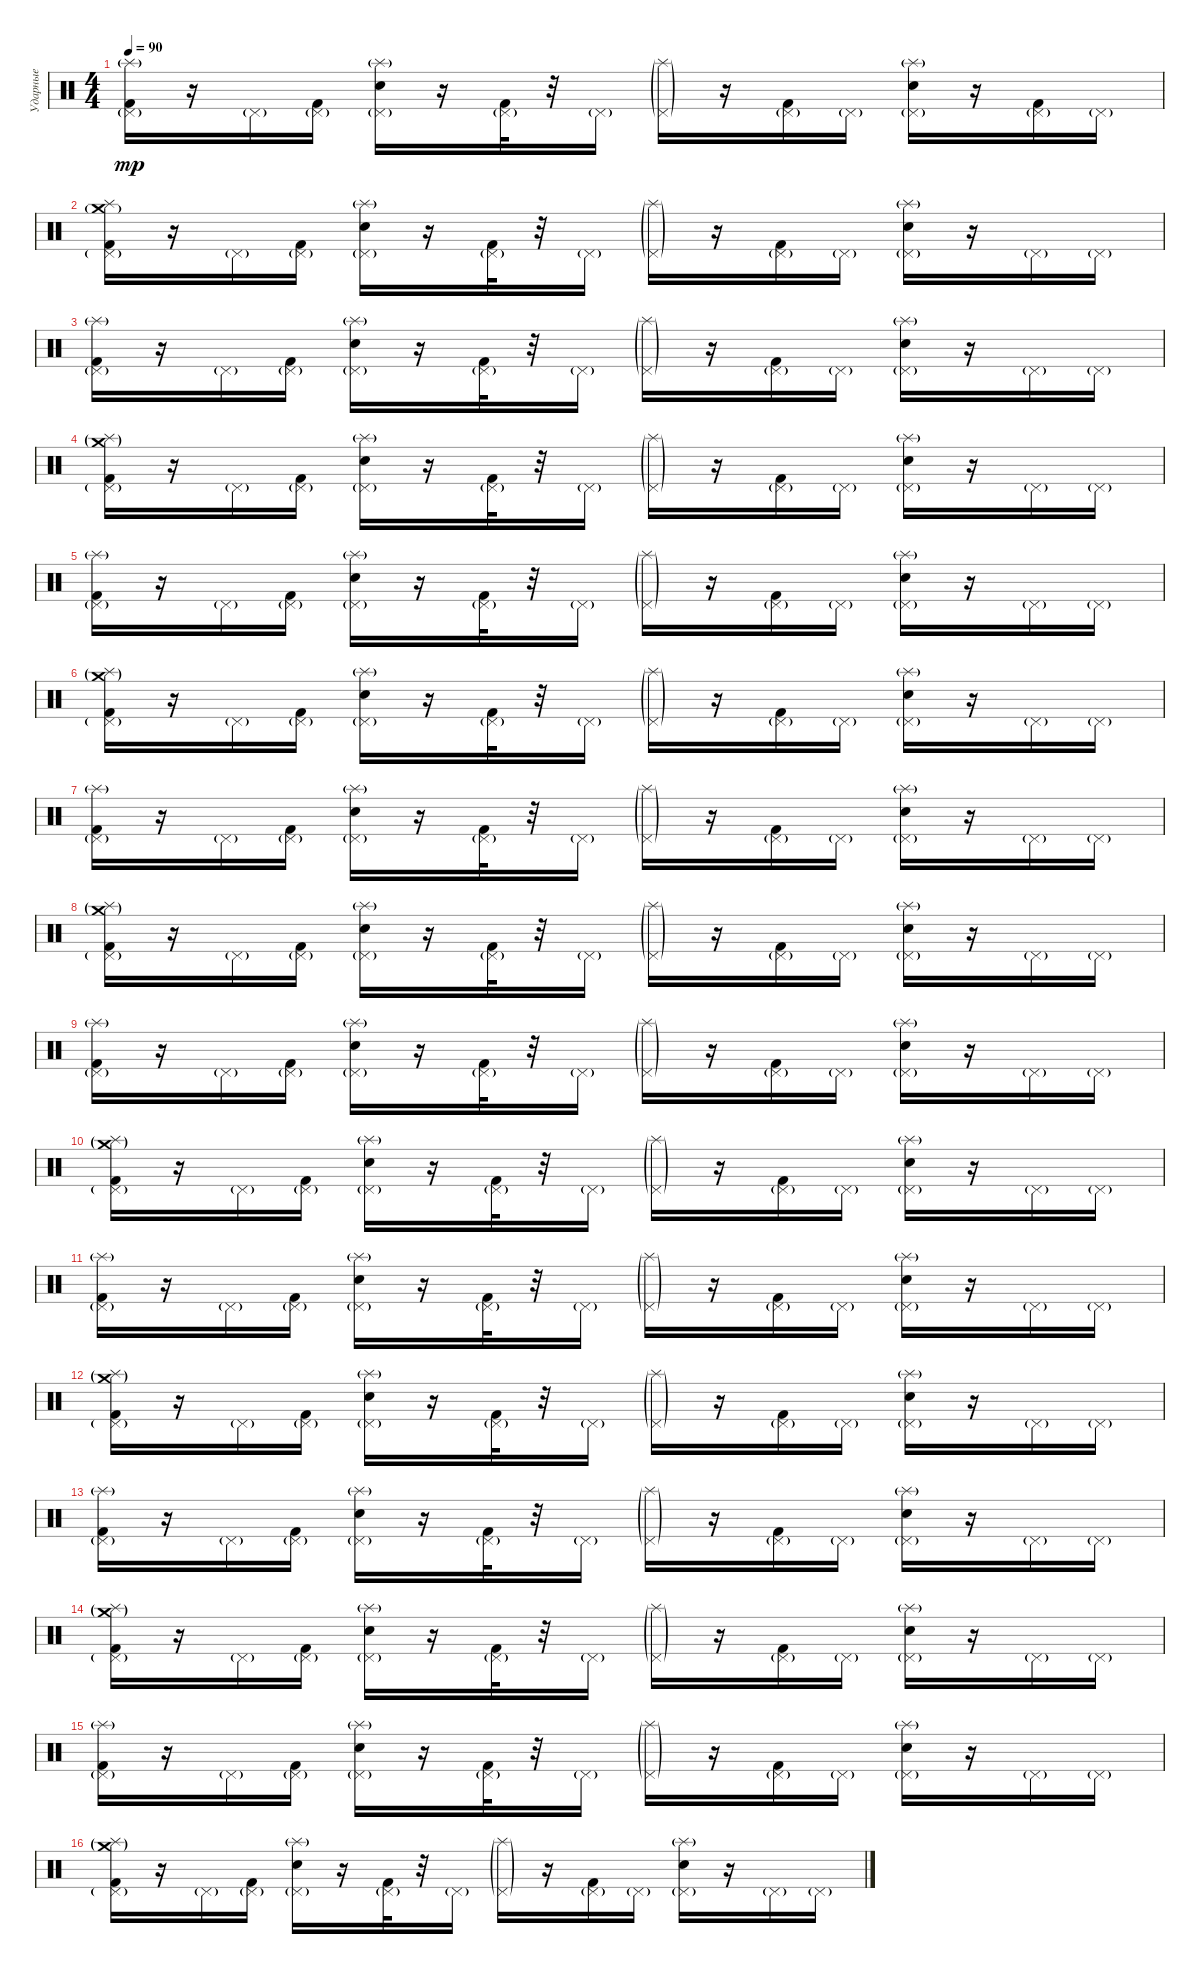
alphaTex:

\track ("Ударные" "Ударные") {instrument percussion}
\staff {score}
\articulation defaults
\ts (4 4)
\tempo 90
\clef neutral
\ks c
("Splash (hit)"{g} "Pedal Hi-Hat (hit)"{g} "Kick (hit) 2").16{dy mp} r.16 "Pedal Hi-Hat (hit)"{g}.16 ("Pedal Hi-Hat (hit)"{g} "Kick (hit) 2").16 ("Splash (hit)"{g} "Pedal Hi-Hat (hit)"{g} "Snare (hit) 2").16 r.16 ("Pedal Hi-Hat (hit)"{g} "Kick (hit) 2").32 r.32 "Pedal Hi-Hat (hit)"{g}.16 ("Splash (hit)"{g} "Pedal Hi-Hat (hit)"{g}).16 r.16 ("Pedal Hi-Hat (hit)"{g} "Kick (hit) 2").16 "Pedal Hi-Hat (hit)"{g}.16 ("Splash (hit)"{g} "Pedal Hi-Hat (hit)"{g} "Snare (hit) 2").16 r.16 ("Pedal Hi-Hat (hit)"{g} "Kick (hit) 2").16 "Pedal Hi-Hat (hit)"{g}.16 |
("Splash (hit)" "Pedal Hi-Hat (hit)"{g} "Crash medium (hit)"{g} "Kick (hit) 2").16 r.16 "Pedal Hi-Hat (hit)"{g}.16 ("Pedal Hi-Hat (hit)"{g} "Kick (hit) 2").16 ("Splash (hit)"{g} "Pedal Hi-Hat (hit)"{g} "Snare (hit) 2").16 r.16 ("Pedal Hi-Hat (hit)"{g} "Kick (hit) 2").32 r.32 "Pedal Hi-Hat (hit)"{g}.16 ("Splash (hit)"{g} "Pedal Hi-Hat (hit)"{g}).16 r.16 ("Pedal Hi-Hat (hit)"{g} "Kick (hit) 2").16 "Pedal Hi-Hat (hit)"{g}.16 ("Splash (hit)"{g} "Pedal Hi-Hat (hit)"{g} "Snare (hit) 2").16 r.16 "Pedal Hi-Hat (hit)"{g}.16 "Pedal Hi-Hat (hit)"{g}.16 |
("Splash (hit)"{g} "Pedal Hi-Hat (hit)"{g} "Kick (hit) 2").16 r.16 "Pedal Hi-Hat (hit)"{g}.16 ("Pedal Hi-Hat (hit)"{g} "Kick (hit) 2").16 ("Splash (hit)"{g} "Pedal Hi-Hat (hit)"{g} "Snare (hit) 2").16 r.16 ("Pedal Hi-Hat (hit)"{g} "Kick (hit) 2").32 r.32 "Pedal Hi-Hat (hit)"{g}.16 ("Splash (hit)"{g} "Pedal Hi-Hat (hit)"{g}).16 r.16 ("Pedal Hi-Hat (hit)"{g} "Kick (hit) 2").16 "Pedal Hi-Hat (hit)"{g}.16 ("Splash (hit)"{g} "Pedal Hi-Hat (hit)"{g} "Snare (hit) 2").16 r.16 "Pedal Hi-Hat (hit)"{g}.16 "Pedal Hi-Hat (hit)"{g}.16 |
("Splash (hit)"{g} "Pedal Hi-Hat (hit)"{g} "Crash medium (hit)"{g} "Kick (hit) 2").16 r.16 "Pedal Hi-Hat (hit)"{g}.16 ("Pedal Hi-Hat (hit)"{g} "Kick (hit) 2").16 ("Splash (hit)"{g} "Pedal Hi-Hat (hit)"{g} "Snare (hit) 2").16 r.16 ("Pedal Hi-Hat (hit)"{g} "Kick (hit) 2").32 r.32 "Pedal Hi-Hat (hit)"{g}.16 ("Splash (hit)"{g} "Pedal Hi-Hat (hit)"{g}).16 r.16 ("Pedal Hi-Hat (hit)"{g} "Kick (hit) 2").16 "Pedal Hi-Hat (hit)"{g}.16 ("Splash (hit)"{g} "Pedal Hi-Hat (hit)"{g} "Snare (hit) 2").16 r.16 "Pedal Hi-Hat (hit)"{g}.16 "Pedal Hi-Hat (hit)"{g}.16 |
("Splash (hit)"{g} "Pedal Hi-Hat (hit)"{g} "Kick (hit) 2").16 r.16 "Pedal Hi-Hat (hit)"{g}.16 ("Pedal Hi-Hat (hit)"{g} "Kick (hit) 2").16 ("Splash (hit)"{g} "Pedal Hi-Hat (hit)"{g} "Snare (hit) 2").16 r.16 ("Pedal Hi-Hat (hit)"{g} "Kick (hit) 2").32 r.32 "Pedal Hi-Hat (hit)"{g}.16 ("Splash (hit)"{g} "Pedal Hi-Hat (hit)"{g}).16 r.16 ("Pedal Hi-Hat (hit)"{g} "Kick (hit) 2").16 "Pedal Hi-Hat (hit)"{g}.16 ("Splash (hit)"{g} "Pedal Hi-Hat (hit)"{g} "Snare (hit) 2").16 r.16 "Pedal Hi-Hat (hit)"{g}.16 "Pedal Hi-Hat (hit)"{g}.16 |
("Splash (hit)"{g} "Pedal Hi-Hat (hit)"{g} "Crash medium (hit)"{g} "Kick (hit) 2").16 r.16 "Pedal Hi-Hat (hit)"{g}.16 ("Pedal Hi-Hat (hit)"{g} "Kick (hit) 2").16 ("Splash (hit)"{g} "Pedal Hi-Hat (hit)"{g} "Snare (hit) 2").16 r.16 ("Pedal Hi-Hat (hit)"{g} "Kick (hit) 2").32 r.32 "Pedal Hi-Hat (hit)"{g}.16 ("Splash (hit)"{g} "Pedal Hi-Hat (hit)"{g}).16 r.16 ("Pedal Hi-Hat (hit)"{g} "Kick (hit) 2").16 "Pedal Hi-Hat (hit)"{g}.16 ("Splash (hit)"{g} "Pedal Hi-Hat (hit)"{g} "Snare (hit) 2").16 r.16 "Pedal Hi-Hat (hit)"{g}.16 "Pedal Hi-Hat (hit)"{g}.16 |
("Splash (hit)"{g} "Pedal Hi-Hat (hit)"{g} "Kick (hit) 2").16 r.16 "Pedal Hi-Hat (hit)"{g}.16 ("Pedal Hi-Hat (hit)"{g} "Kick (hit) 2").16 ("Splash (hit)"{g} "Pedal Hi-Hat (hit)"{g} "Snare (hit) 2").16 r.16 ("Pedal Hi-Hat (hit)"{g} "Kick (hit) 2").32 r.32 "Pedal Hi-Hat (hit)"{g}.16 ("Splash (hit)"{g} "Pedal Hi-Hat (hit)"{g}).16 r.16 ("Pedal Hi-Hat (hit)"{g} "Kick (hit) 2").16 "Pedal Hi-Hat (hit)"{g}.16 ("Splash (hit)"{g} "Pedal Hi-Hat (hit)"{g} "Snare (hit) 2").16 r.16 "Pedal Hi-Hat (hit)"{g}.16 "Pedal Hi-Hat (hit)"{g}.16 |
("Splash (hit)"{g} "Pedal Hi-Hat (hit)"{g} "Crash medium (hit)"{g} "Kick (hit) 2").16 r.16 "Pedal Hi-Hat (hit)"{g}.16 ("Pedal Hi-Hat (hit)"{g} "Kick (hit) 2").16 ("Splash (hit)"{g} "Pedal Hi-Hat (hit)"{g} "Snare (hit) 2").16 r.16 ("Pedal Hi-Hat (hit)"{g} "Kick (hit) 2").32 r.32 "Pedal Hi-Hat (hit)"{g}.16 ("Splash (hit)"{g} "Pedal Hi-Hat (hit)"{g}).16 r.16 ("Pedal Hi-Hat (hit)"{g} "Kick (hit) 2").16 "Pedal Hi-Hat (hit)"{g}.16 ("Splash (hit)"{g} "Pedal Hi-Hat (hit)"{g} "Snare (hit) 2").16 r.16 "Pedal Hi-Hat (hit)"{g}.16 "Pedal Hi-Hat (hit)"{g}.16 |
("Splash (hit)"{g} "Pedal Hi-Hat (hit)"{g} "Kick (hit) 2").16 r.16 "Pedal Hi-Hat (hit)"{g}.16 ("Pedal Hi-Hat (hit)"{g} "Kick (hit) 2").16 ("Splash (hit)"{g} "Pedal Hi-Hat (hit)"{g} "Snare (hit) 2").16 r.16 ("Pedal Hi-Hat (hit)"{g} "Kick (hit) 2").32 r.32 "Pedal Hi-Hat (hit)"{g}.16 ("Splash (hit)"{g} "Pedal Hi-Hat (hit)"{g}).16 r.16 ("Pedal Hi-Hat (hit)"{g} "Kick (hit) 2").16 "Pedal Hi-Hat (hit)"{g}.16 ("Splash (hit)"{g} "Pedal Hi-Hat (hit)"{g} "Snare (hit) 2").16 r.16 "Pedal Hi-Hat (hit)"{g}.16 "Pedal Hi-Hat (hit)"{g}.16 |
("Splash (hit)"{g} "Pedal Hi-Hat (hit)"{g} "Crash medium (hit)"{g} "Kick (hit) 2").16 r.16 "Pedal Hi-Hat (hit)"{g}.16 ("Pedal Hi-Hat (hit)"{g} "Kick (hit) 2").16 ("Splash (hit)"{g} "Pedal Hi-Hat (hit)"{g} "Snare (hit) 2").16 r.16 ("Pedal Hi-Hat (hit)"{g} "Kick (hit) 2").32 r.32 "Pedal Hi-Hat (hit)"{g}.16 ("Splash (hit)"{g} "Pedal Hi-Hat (hit)"{g}).16 r.16 ("Pedal Hi-Hat (hit)"{g} "Kick (hit) 2").16 "Pedal Hi-Hat (hit)"{g}.16 ("Splash (hit)"{g} "Pedal Hi-Hat (hit)"{g} "Snare (hit) 2").16 r.16 "Pedal Hi-Hat (hit)"{g}.16 "Pedal Hi-Hat (hit)"{g}.16 |
("Splash (hit)"{g} "Pedal Hi-Hat (hit)"{g} "Kick (hit) 2").16 r.16 "Pedal Hi-Hat (hit)"{g}.16 ("Pedal Hi-Hat (hit)"{g} "Kick (hit) 2").16 ("Splash (hit)"{g} "Pedal Hi-Hat (hit)"{g} "Snare (hit) 2").16 r.16 ("Pedal Hi-Hat (hit)"{g} "Kick (hit) 2").32 r.32 "Pedal Hi-Hat (hit)"{g}.16 ("Splash (hit)"{g} "Pedal Hi-Hat (hit)"{g}).16 r.16 ("Pedal Hi-Hat (hit)"{g} "Kick (hit) 2").16 "Pedal Hi-Hat (hit)"{g}.16 ("Splash (hit)"{g} "Pedal Hi-Hat (hit)"{g} "Snare (hit) 2").16 r.16 "Pedal Hi-Hat (hit)"{g}.16 "Pedal Hi-Hat (hit)"{g}.16 |
("Splash (hit)"{g} "Pedal Hi-Hat (hit)"{g} "Crash medium (hit)"{g} "Kick (hit) 2").16 r.16 "Pedal Hi-Hat (hit)"{g}.16 ("Pedal Hi-Hat (hit)"{g} "Kick (hit) 2").16 ("Splash (hit)"{g} "Pedal Hi-Hat (hit)"{g} "Snare (hit) 2").16 r.16 ("Pedal Hi-Hat (hit)"{g} "Kick (hit) 2").32 r.32 "Pedal Hi-Hat (hit)"{g}.16 ("Splash (hit)"{g} "Pedal Hi-Hat (hit)"{g}).16 r.16 ("Pedal Hi-Hat (hit)"{g} "Kick (hit) 2").16 "Pedal Hi-Hat (hit)"{g}.16 ("Splash (hit)"{g} "Pedal Hi-Hat (hit)"{g} "Snare (hit) 2").16 r.16 "Pedal Hi-Hat (hit)"{g}.16 "Pedal Hi-Hat (hit)"{g}.16 |
("Splash (hit)"{g} "Pedal Hi-Hat (hit)"{g} "Kick (hit) 2").16 r.16 "Pedal Hi-Hat (hit)"{g}.16 ("Pedal Hi-Hat (hit)"{g} "Kick (hit) 2").16 ("Splash (hit)"{g} "Pedal Hi-Hat (hit)"{g} "Snare (hit) 2").16 r.16 ("Pedal Hi-Hat (hit)"{g} "Kick (hit) 2").32 r.32 "Pedal Hi-Hat (hit)"{g}.16 ("Splash (hit)"{g} "Pedal Hi-Hat (hit)"{g}).16 r.16 ("Pedal Hi-Hat (hit)"{g} "Kick (hit) 2").16 "Pedal Hi-Hat (hit)"{g}.16 ("Splash (hit)"{g} "Pedal Hi-Hat (hit)"{g} "Snare (hit) 2").16 r.16 "Pedal Hi-Hat (hit)"{g}.16 "Pedal Hi-Hat (hit)"{g}.16 |
("Splash (hit)"{g} "Pedal Hi-Hat (hit)"{g} "Crash medium (hit)"{g} "Kick (hit) 2").16 r.16 "Pedal Hi-Hat (hit)"{g}.16 ("Pedal Hi-Hat (hit)"{g} "Kick (hit) 2").16 ("Splash (hit)"{g} "Pedal Hi-Hat (hit)"{g} "Snare (hit) 2").16 r.16 ("Pedal Hi-Hat (hit)"{g} "Kick (hit) 2").32 r.32 "Pedal Hi-Hat (hit)"{g}.16 ("Splash (hit)"{g} "Pedal Hi-Hat (hit)"{g}).16 r.16 ("Pedal Hi-Hat (hit)"{g} "Kick (hit) 2").16 "Pedal Hi-Hat (hit)"{g}.16 ("Splash (hit)"{g} "Pedal Hi-Hat (hit)"{g} "Snare (hit) 2").16 r.16 "Pedal Hi-Hat (hit)"{g}.16 "Pedal Hi-Hat (hit)"{g}.16 |
("Splash (hit)"{g} "Pedal Hi-Hat (hit)"{g} "Kick (hit) 2").16 r.16 "Pedal Hi-Hat (hit)"{g}.16 ("Pedal Hi-Hat (hit)"{g} "Kick (hit) 2").16 ("Splash (hit)"{g} "Pedal Hi-Hat (hit)"{g} "Snare (hit) 2").16 r.16 ("Pedal Hi-Hat (hit)"{g} "Kick (hit) 2").32 r.32 "Pedal Hi-Hat (hit)"{g}.16 ("Splash (hit)"{g} "Pedal Hi-Hat (hit)"{g}).16 r.16 ("Pedal Hi-Hat (hit)"{g} "Kick (hit) 2").16 "Pedal Hi-Hat (hit)"{g}.16 ("Splash (hit)"{g} "Pedal Hi-Hat (hit)"{g} "Snare (hit) 2").16 r.16 "Pedal Hi-Hat (hit)"{g}.16 "Pedal Hi-Hat (hit)"{g}.16 |
("Splash (hit)"{g} "Pedal Hi-Hat (hit)"{g} "Crash medium (hit)"{g} "Kick (hit) 2").16 r.16 "Pedal Hi-Hat (hit)"{g}.16 ("Pedal Hi-Hat (hit)"{g} "Kick (hit) 2").16 ("Splash (hit)"{g} "Pedal Hi-Hat (hit)"{g} "Snare (hit) 2").16 r.16 ("Pedal Hi-Hat (hit)"{g} "Kick (hit) 2").32 r.32 "Pedal Hi-Hat (hit)"{g}.16 ("Splash (hit)"{g} "Pedal Hi-Hat (hit)"{g}).16 r.16 ("Pedal Hi-Hat (hit)"{g} "Kick (hit) 2").16 "Pedal Hi-Hat (hit)"{g}.16 ("Splash (hit)"{g} "Pedal Hi-Hat (hit)"{g} "Snare (hit) 2").16 r.16 "Pedal Hi-Hat (hit)"{g}.16 "Pedal Hi-Hat (hit)"{g}.16
